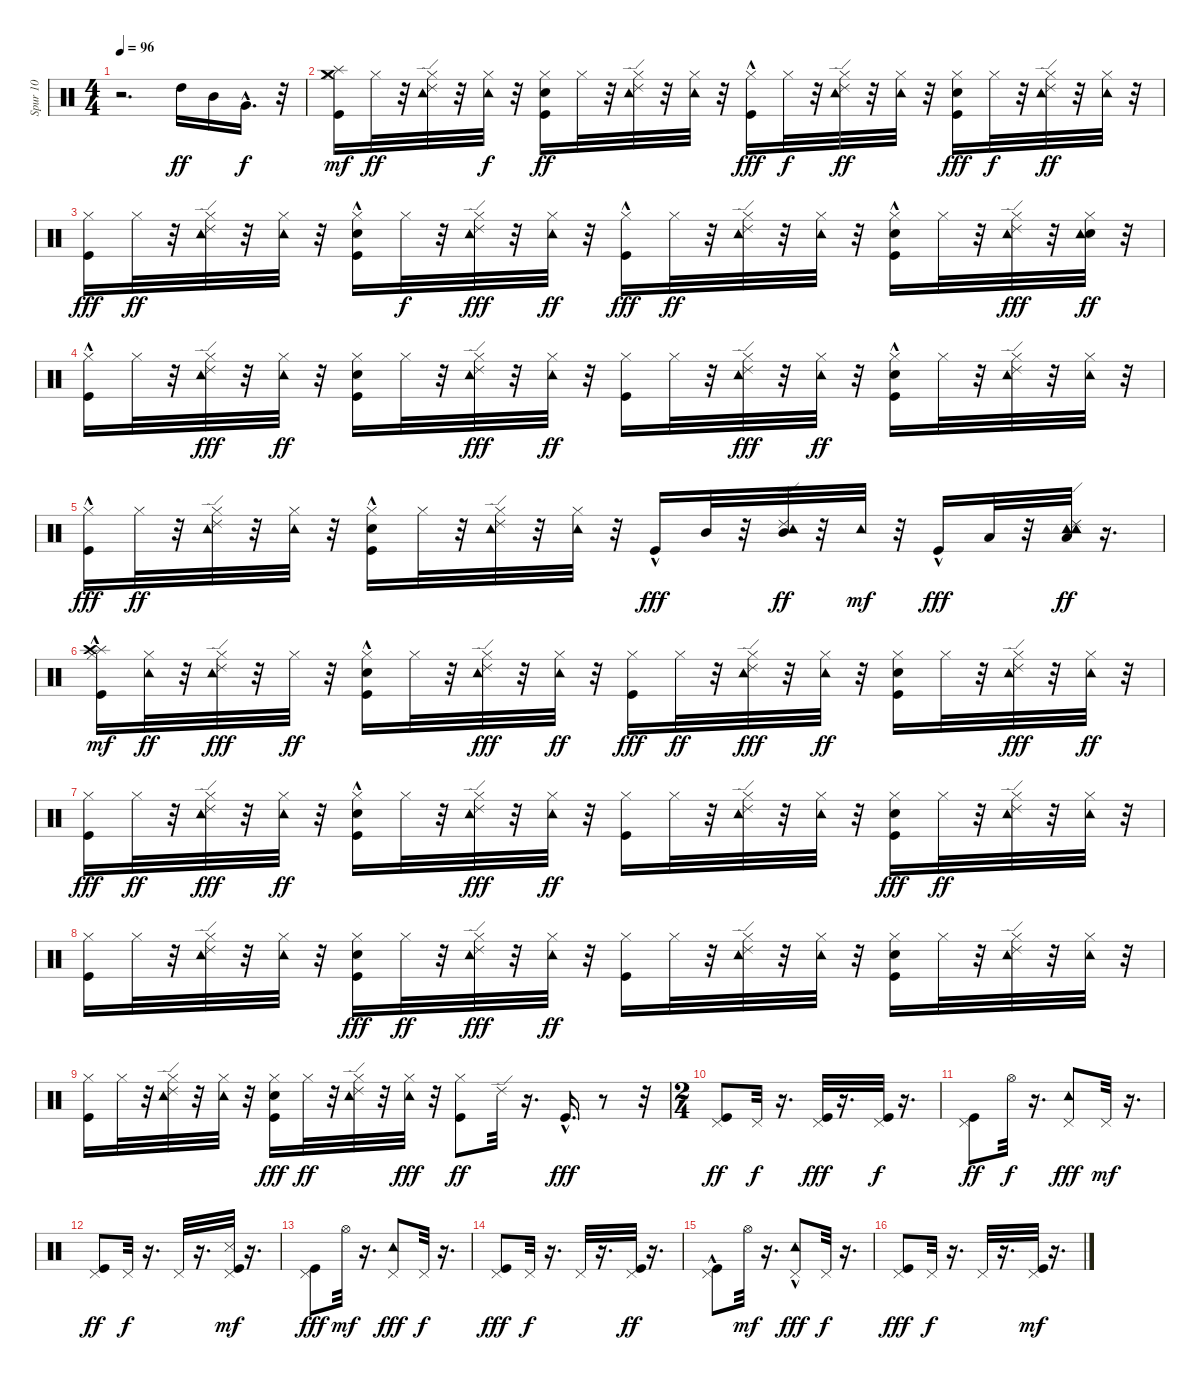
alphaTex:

\track ("Spur 10" "Spur 10") {instrument percussion}
\staff {score}
\articulation defaults
\ts (4 4)
\tempo 96
\clef neutral
\ks c
r.2{d dy ff} "High Tom (hit)".16 "Mid Tom (hit)".16 "Very Low Tom (hit)"{hac}.16{d dy f} r.32 |
("Kick (hit)" "Hi-Hat (closed)" "Crash medium (hit)" "Splash (hit)").16{dy mf} "Hi-Hat (closed)".32{dy ff} r.32 ("Tambourine (hit)" "Hi-Hat (closed)" "Ride (edge) 2").32 r.32 ("Tambourine (hit)" "Hi-Hat (closed)").32{dy f} r.32 ("Kick (hit)" "Snare (hit) 2" "Hi-Hat (closed)").16{dy ff} "Hi-Hat (closed)".32 r.32 ("Tambourine (hit)" "Hi-Hat (closed)" "Ride (edge) 2").32 r.32 ("Tambourine (hit)" "Hi-Hat (closed)").32 r.32 ("Kick (hit)"{hac} "Hi-Hat (closed)").16{dy fff} "Hi-Hat (closed)".32{dy f} r.32 ("Tambourine (hit)" "Hi-Hat (closed)" "Ride (edge) 2").32{dy ff} r.32 ("Tambourine (hit)" "Hi-Hat (closed)").32 r.32 ("Kick (hit)" "Snare (hit) 2" "Hi-Hat (closed)").16{dy fff} "Hi-Hat (closed)".32{dy f} r.32 ("Tambourine (hit)" "Hi-Hat (closed)" "Ride (edge) 2").32{dy ff} r.32 ("Tambourine (hit)" "Hi-Hat (closed)").32 r.32 |
("Kick (hit)" "Hi-Hat (closed)").16{dy fff} "Hi-Hat (closed)".32{dy ff} r.32 ("Tambourine (hit)" "Hi-Hat (closed)" "Ride (edge) 2").32 r.32 ("Tambourine (hit)" "Hi-Hat (closed)").32 r.32 ("Snare (hit) 2"{hac} "Kick (hit)" "Hi-Hat (closed)").16 "Hi-Hat (closed)".32{dy f} r.32 ("Tambourine (hit)" "Hi-Hat (closed)" "Ride (edge) 2").32{dy fff} r.32 ("Tambourine (hit)" "Hi-Hat (closed)").32{dy ff} r.32 ("Kick (hit)"{hac} "Hi-Hat (closed)").16{dy fff} "Hi-Hat (closed)".32{dy ff} r.32 ("Tambourine (hit)" "Hi-Hat (closed)" "Ride (edge) 2").32 r.32 ("Tambourine (hit)" "Hi-Hat (closed)").32 r.32 ("Kick (hit)"{hac} "Snare (hit) 2"{hac} "Hi-Hat (closed)").16 "Hi-Hat (closed)".32 r.32 ("Tambourine (hit)" "Hi-Hat (closed)" "Ride (edge) 2").32{dy fff} r.32 ("Snare (hit) 2" "Tambourine (hit)" "Hi-Hat (closed)").32{dy ff} r.32 |
("Kick (hit)"{hac} "Hi-Hat (closed)").16 "Hi-Hat (closed)".32 r.32 ("Tambourine (hit)" "Hi-Hat (closed)" "Ride (edge) 2").32{dy fff} r.32 ("Tambourine (hit)" "Hi-Hat (closed)").32{dy ff} r.32 ("Kick (hit)" "Snare (hit) 2" "Hi-Hat (closed)").16 "Hi-Hat (closed)".32 r.32 ("Tambourine (hit)" "Hi-Hat (closed)" "Ride (edge) 2").32{dy fff} r.32 ("Tambourine (hit)" "Hi-Hat (closed)").32{dy ff} r.32 ("Kick (hit)" "Hi-Hat (closed)").16 "Hi-Hat (closed)".32 r.32 ("Tambourine (hit)" "Hi-Hat (closed)" "Ride (edge) 2").32{dy fff} r.32 ("Tambourine (hit)" "Hi-Hat (closed)").32{dy ff} r.32 ("Snare (hit) 2"{hac} "Kick (hit)" "Hi-Hat (closed)").16 "Hi-Hat (closed)".32 r.32 ("Tambourine (hit)" "Hi-Hat (closed)" "Ride (edge) 2").32 r.32 ("Tambourine (hit)" "Hi-Hat (closed)").32 r.32 |
("Kick (hit)"{hac} "Hi-Hat (closed)").16{dy fff} "Hi-Hat (closed)".32{dy ff} r.32 ("Tambourine (hit)" "Hi-Hat (closed)" "Ride (edge) 2").32 r.32 ("Tambourine (hit)" "Hi-Hat (closed)").32 r.32 ("Snare (hit) 2"{hac} "Kick (hit)" "Hi-Hat (closed)").16 "Hi-Hat (closed)".32 r.32 ("Tambourine (hit)" "Hi-Hat (closed)" "Ride (edge) 2").32 r.32 ("Tambourine (hit)" "Hi-Hat (closed)").32 r.32 "Kick (hit)"{hac}.16{dy fff} "Mid Tom (hit)".32 r.32 ("Mid Tom (hit)" "Tambourine (hit)" "Ride (edge) 2").32{dy ff} r.32 "Tambourine (hit)".32{dy mf} r.32 "Kick (hit)"{hac}.16{dy fff} "Low Tom (hit)".32 r.32 ("Low Tom (hit)" "Tambourine (hit)" "Tambourine (hit)" "Ride (edge) 2").32{dy ff} r.16{d} |
("Kick (hit)" "Hi-Hat (closed)" "Splash (hit)"{hac} "Crash high (hit)").16{dy mf} ("Tambourine (hit)" "Hi-Hat (closed)").32{dy ff} r.32 ("Tambourine (hit)" "Hi-Hat (closed)" "Ride (edge) 2").32{dy fff} r.32 "Hi-Hat (closed)".32{dy ff} r.32 ("Snare (hit) 2"{hac} "Kick (hit)" "Hi-Hat (closed)").16 "Hi-Hat (closed)".32 r.32 ("Tambourine (hit)" "Hi-Hat (closed)" "Ride (edge) 2").32{dy fff} r.32 ("Tambourine (hit)" "Hi-Hat (closed)").32{dy ff} r.32 ("Kick (hit)" "Hi-Hat (closed)").16{dy fff} "Hi-Hat (closed)".32{dy ff} r.32 ("Tambourine (hit)" "Hi-Hat (closed)" "Ride (edge) 2").32{dy fff} r.32 ("Tambourine (hit)" "Hi-Hat (closed)").32{dy ff} r.32 ("Kick (hit)" "Snare (hit) 2" "Hi-Hat (closed)").16 "Hi-Hat (closed)".32 r.32 ("Tambourine (hit)" "Hi-Hat (closed)" "Ride (edge) 2").32{dy fff} r.32 ("Tambourine (hit)" "Hi-Hat (closed)").32{dy ff} r.32 |
("Kick (hit)" "Hi-Hat (closed)").16{dy fff} "Hi-Hat (closed)".32{dy ff} r.32 ("Tambourine (hit)" "Hi-Hat (closed)" "Ride (edge) 2").32{dy fff} r.32 ("Tambourine (hit)" "Hi-Hat (closed)").32{dy ff} r.32 ("Snare (hit) 2"{hac} "Kick (hit)"{hac} "Hi-Hat (closed)").16 "Hi-Hat (closed)".32 r.32 ("Tambourine (hit)" "Hi-Hat (closed)" "Ride (edge) 2").32{dy fff} r.32 ("Tambourine (hit)" "Hi-Hat (closed)").32{dy ff} r.32 ("Kick (hit)" "Hi-Hat (closed)").16 "Hi-Hat (closed)".32 r.32 ("Tambourine (hit)" "Hi-Hat (closed)" "Ride (edge) 2").32 r.32 ("Tambourine (hit)" "Hi-Hat (closed)").32 r.32 ("Snare (hit) 2" "Kick (hit)" "Hi-Hat (closed)").16{dy fff} "Hi-Hat (closed)".32{dy ff} r.32 ("Tambourine (hit)" "Hi-Hat (closed)" "Ride (edge) 2").32 r.32 ("Tambourine (hit)" "Hi-Hat (closed)").32 r.32 |
("Kick (hit)" "Hi-Hat (closed)").16 "Hi-Hat (closed)".32 r.32 ("Tambourine (hit)" "Hi-Hat (closed)" "Ride (edge) 2").32 r.32 ("Tambourine (hit)" "Hi-Hat (closed)").32 r.32 ("Snare (hit) 2" "Kick (hit)" "Hi-Hat (closed)").16{dy fff} "Hi-Hat (closed)".32{dy ff} r.32 ("Tambourine (hit)" "Hi-Hat (closed)" "Ride (edge) 2").32{dy fff} r.32 ("Tambourine (hit)" "Hi-Hat (closed)").32{dy ff} r.32 ("Kick (hit)" "Hi-Hat (closed)").16 "Hi-Hat (closed)".32 r.32 ("Tambourine (hit)" "Hi-Hat (closed)" "Ride (edge) 2").32 r.32 ("Tambourine (hit)" "Hi-Hat (closed)").32 r.32 ("Snare (hit) 2" "Kick (hit)" "Hi-Hat (closed)").16 "Hi-Hat (closed)".32 r.32 ("Tambourine (hit)" "Hi-Hat (closed)" "Ride (edge) 2").32 r.32 ("Tambourine (hit)" "Hi-Hat (closed)").32 r.32 |
("Kick (hit)" "Hi-Hat (closed)").16 "Hi-Hat (closed)".32 r.32 ("Tambourine (hit)" "Hi-Hat (closed)" "Ride (edge) 2").32 r.32 ("Tambourine (hit)" "Hi-Hat (closed)").32 r.32 ("Snare (hit) 2" "Kick (hit)" "Hi-Hat (closed)").16{dy fff} "Hi-Hat (closed)".32{dy ff} r.32 ("Tambourine (hit)" "Hi-Hat (closed)" "Ride (edge) 2").32 r.32 ("Tambourine (hit)" "Hi-Hat (closed)").32{dy fff} r.32 ("Kick (hit)" "Hi-Hat (closed)").8{dy ff} "Ride (edge) 2".32 r.16{d} "Kick (hit)"{hac}.16{d dy fff} r.8 r.32 |
\ts (2 4)
("Kick (hit)" "Pedal Hi-Hat (hit)").8{dy ff} "Pedal Hi-Hat (hit)".32{dy f} r.16{d} ("Kick (hit)" "Pedal Hi-Hat (hit)").32{dy fff} r.16{d} ("Kick (hit)" "Pedal Hi-Hat (hit)").32{dy f} r.16{d} |
("Kick (hit)" "Pedal Hi-Hat (hit)").8{dy ff} "Hi-Hat (open)".32{dy f} r.16{d} ("Tambourine (hit)" "Pedal Hi-Hat (hit)").8{dy fff} "Pedal Hi-Hat (hit)".32{dy mf} r.16{d} |
("Kick (hit)" "Pedal Hi-Hat (hit)").8{dy ff} "Pedal Hi-Hat (hit)".32{dy f} r.16{d} "Pedal Hi-Hat (hit)".32 r.16{d} ("Kick (hit)" "Metronome (hit)" "Pedal Hi-Hat (hit)").32{dy mf} r.16{d} |
("Kick (hit)" "Pedal Hi-Hat (hit)").8{dy fff} "Hi-Hat (open)".32{dy mf} r.16{d} ("Tambourine (hit)" "Pedal Hi-Hat (hit)").8{dy fff} "Pedal Hi-Hat (hit)".32{dy f} r.16{d} |
("Kick (hit)" "Pedal Hi-Hat (hit)").8{dy fff} "Pedal Hi-Hat (hit)".32{dy f} r.16{d} "Pedal Hi-Hat (hit)".32 r.16{d} ("Kick (hit)" "Pedal Hi-Hat (hit)").32{dy ff} r.16{d} |
("Kick (hit)"{hac} "Pedal Hi-Hat (hit)").8 "Hi-Hat (open)".32{dy mf} r.16{d} ("Tambourine (hit)"{hac} "Pedal Hi-Hat (hit)").8{dy fff} "Pedal Hi-Hat (hit)".32{dy f} r.16{d} |
("Kick (hit)" "Pedal Hi-Hat (hit)").8{dy fff} "Pedal Hi-Hat (hit)".32{dy f} r.16{d} "Pedal Hi-Hat (hit)".32 r.16{d} ("Kick (hit)" "Pedal Hi-Hat (hit)").32{dy mf} r.16{d}
